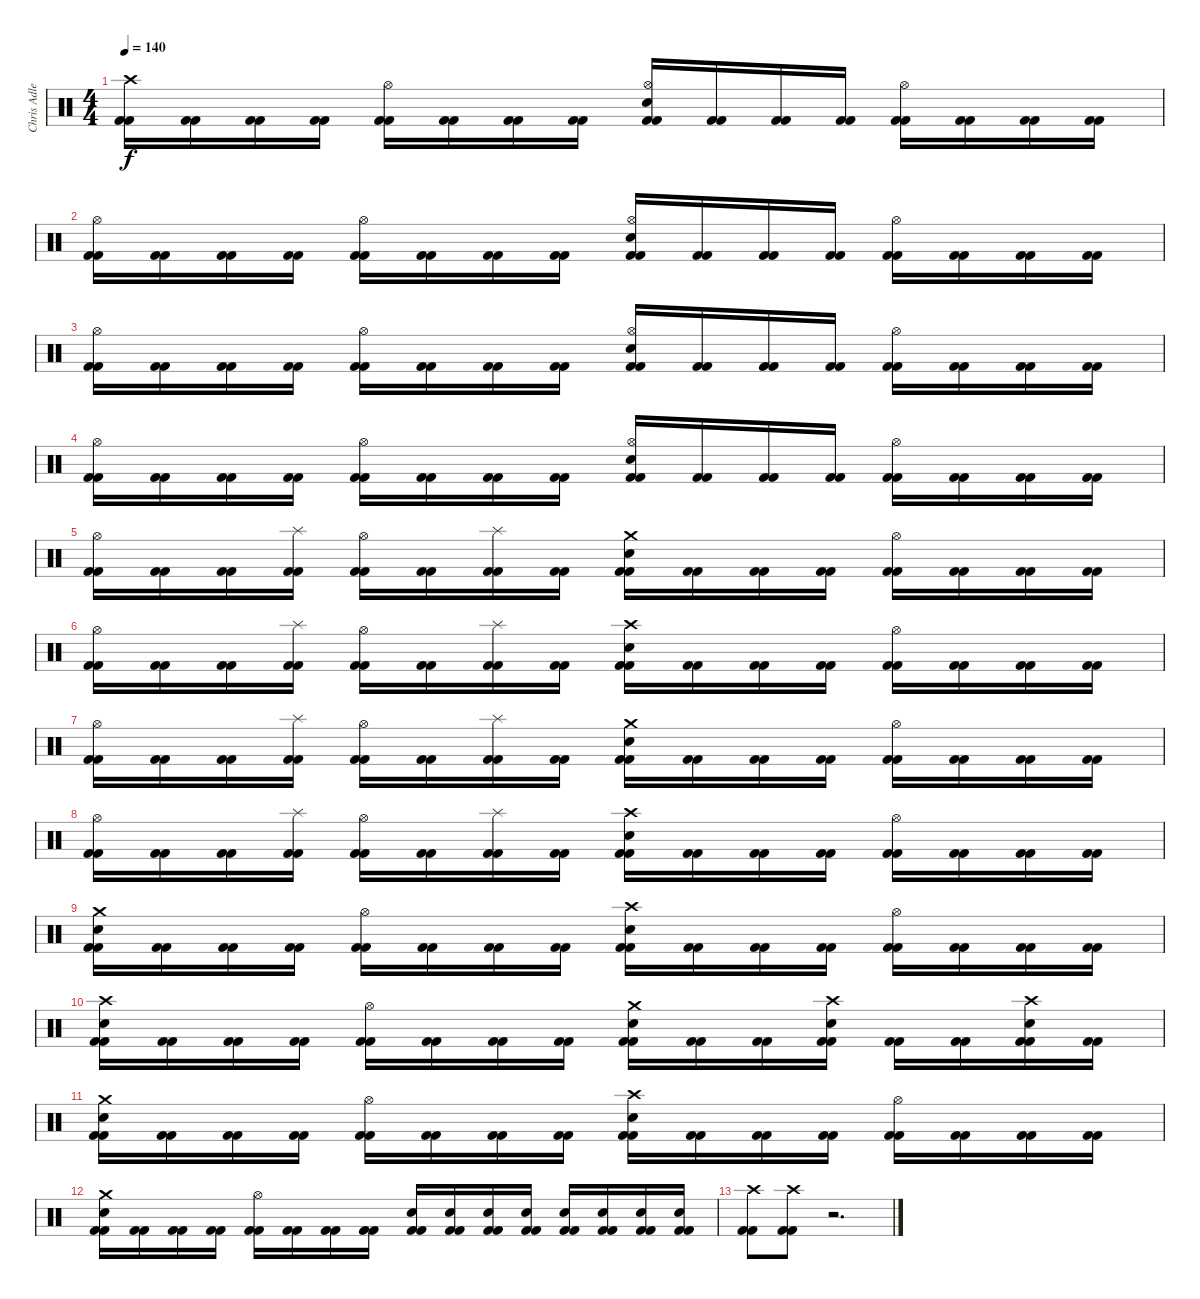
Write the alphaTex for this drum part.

\track ("Chris Adler" "Chris Adle") {instrument percussion}
\staff {score}
\articulation defaults
\ts (4 4)
\tempo 140
\clef neutral
\ks c
("Crash high (hit)" "Kick (hit) 2" "Kick (hit) 2").16{dy f} ("Kick (hit) 2" "Kick (hit) 2").16 ("Kick (hit) 2" "Kick (hit) 2").16 ("Kick (hit) 2" "Kick (hit) 2").16 ("Hi-Hat (open)" "Kick (hit) 2" "Kick (hit) 2").16 ("Kick (hit) 2" "Kick (hit) 2").16 ("Kick (hit) 2" "Kick (hit) 2").16 ("Kick (hit) 2" "Kick (hit) 2").16 ("Hi-Hat (open)" "Electric Snare (hit)" "Kick (hit) 2" "Kick (hit) 2").16 ("Kick (hit) 2" "Kick (hit) 2").16 ("Kick (hit) 2" "Kick (hit) 2").16 ("Kick (hit) 2" "Kick (hit) 2").16 ("Hi-Hat (open)" "Kick (hit) 2" "Kick (hit) 2").16 ("Kick (hit) 2" "Kick (hit) 2").16 ("Kick (hit) 2" "Kick (hit) 2").16 ("Kick (hit) 2" "Kick (hit) 2").16 |
("Hi-Hat (open)" "Kick (hit) 2" "Kick (hit) 2").16 ("Kick (hit) 2" "Kick (hit) 2").16 ("Kick (hit) 2" "Kick (hit) 2").16 ("Kick (hit) 2" "Kick (hit) 2").16 ("Hi-Hat (open)" "Kick (hit) 2" "Kick (hit) 2").16 ("Kick (hit) 2" "Kick (hit) 2").16 ("Kick (hit) 2" "Kick (hit) 2").16 ("Kick (hit) 2" "Kick (hit) 2").16 ("Hi-Hat (open)" "Electric Snare (hit)" "Kick (hit) 2" "Kick (hit) 2").16 ("Kick (hit) 2" "Kick (hit) 2").16 ("Kick (hit) 2" "Kick (hit) 2").16 ("Kick (hit) 2" "Kick (hit) 2").16 ("Hi-Hat (open)" "Kick (hit) 2" "Kick (hit) 2").16 ("Kick (hit) 2" "Kick (hit) 2").16 ("Kick (hit) 2" "Kick (hit) 2").16 ("Kick (hit) 2" "Kick (hit) 2").16 |
("Hi-Hat (open)" "Kick (hit) 2" "Kick (hit) 2").16 ("Kick (hit) 2" "Kick (hit) 2").16 ("Kick (hit) 2" "Kick (hit) 2").16 ("Kick (hit) 2" "Kick (hit) 2").16 ("Hi-Hat (open)" "Kick (hit) 2" "Kick (hit) 2").16 ("Kick (hit) 2" "Kick (hit) 2").16 ("Kick (hit) 2" "Kick (hit) 2").16 ("Kick (hit) 2" "Kick (hit) 2").16 ("Hi-Hat (open)" "Electric Snare (hit)" "Kick (hit) 2" "Kick (hit) 2").16 ("Kick (hit) 2" "Kick (hit) 2").16 ("Kick (hit) 2" "Kick (hit) 2").16 ("Kick (hit) 2" "Kick (hit) 2").16 ("Hi-Hat (open)" "Kick (hit) 2" "Kick (hit) 2").16 ("Kick (hit) 2" "Kick (hit) 2").16 ("Kick (hit) 2" "Kick (hit) 2").16 ("Kick (hit) 2" "Kick (hit) 2").16 |
("Hi-Hat (open)" "Kick (hit) 2" "Kick (hit) 2").16 ("Kick (hit) 2" "Kick (hit) 2").16 ("Kick (hit) 2" "Kick (hit) 2").16 ("Kick (hit) 2" "Kick (hit) 2").16 ("Hi-Hat (open)" "Kick (hit) 2" "Kick (hit) 2").16 ("Kick (hit) 2" "Kick (hit) 2").16 ("Kick (hit) 2" "Kick (hit) 2").16 ("Kick (hit) 2" "Kick (hit) 2").16 ("Hi-Hat (open)" "Electric Snare (hit)" "Kick (hit) 2" "Kick (hit) 2").16 ("Kick (hit) 2" "Kick (hit) 2").16 ("Kick (hit) 2" "Kick (hit) 2").16 ("Kick (hit) 2" "Kick (hit) 2").16 ("Hi-Hat (open)" "Kick (hit) 2" "Kick (hit) 2").16 ("Kick (hit) 2" "Kick (hit) 2").16 ("Kick (hit) 2" "Kick (hit) 2").16 ("Kick (hit) 2" "Kick (hit) 2").16 |
("Hi-Hat (open)" "Kick (hit) 2" "Kick (hit) 2").16 ("Kick (hit) 2" "Kick (hit) 2").16 ("Kick (hit) 2" "Kick (hit) 2").16 ("Splash (hit)" "Kick (hit) 2" "Kick (hit) 2").16 ("Hi-Hat (open)" "Kick (hit) 2" "Kick (hit) 2").16 ("Kick (hit) 2" "Kick (hit) 2").16 ("Splash (hit)" "Kick (hit) 2" "Kick (hit) 2").16 ("Kick (hit) 2" "Kick (hit) 2").16 ("Crash medium (hit)" "Electric Snare (hit)" "Kick (hit) 2" "Kick (hit) 2").16 ("Kick (hit) 2" "Kick (hit) 2").16 ("Kick (hit) 2" "Kick (hit) 2").16 ("Kick (hit) 2" "Kick (hit) 2").16 ("Hi-Hat (open)" "Kick (hit) 2" "Kick (hit) 2").16 ("Kick (hit) 2" "Kick (hit) 2").16 ("Kick (hit) 2" "Kick (hit) 2").16 ("Kick (hit) 2" "Kick (hit) 2").16 |
("Hi-Hat (open)" "Kick (hit) 2" "Kick (hit) 2").16 ("Kick (hit) 2" "Kick (hit) 2").16 ("Kick (hit) 2" "Kick (hit) 2").16 ("Splash (hit)" "Kick (hit) 2" "Kick (hit) 2").16 ("Hi-Hat (open)" "Kick (hit) 2" "Kick (hit) 2").16 ("Kick (hit) 2" "Kick (hit) 2").16 ("Splash (hit)" "Kick (hit) 2" "Kick (hit) 2").16 ("Kick (hit) 2" "Kick (hit) 2").16 ("Crash high (hit)" "Electric Snare (hit)" "Kick (hit) 2" "Kick (hit) 2").16 ("Kick (hit) 2" "Kick (hit) 2").16 ("Kick (hit) 2" "Kick (hit) 2").16 ("Kick (hit) 2" "Kick (hit) 2").16 ("Hi-Hat (open)" "Kick (hit) 2" "Kick (hit) 2").16 ("Kick (hit) 2" "Kick (hit) 2").16 ("Kick (hit) 2" "Kick (hit) 2").16 ("Kick (hit) 2" "Kick (hit) 2").16 |
("Hi-Hat (open)" "Kick (hit) 2" "Kick (hit) 2").16 ("Kick (hit) 2" "Kick (hit) 2").16 ("Kick (hit) 2" "Kick (hit) 2").16 ("Splash (hit)" "Kick (hit) 2" "Kick (hit) 2").16 ("Hi-Hat (open)" "Kick (hit) 2" "Kick (hit) 2").16 ("Kick (hit) 2" "Kick (hit) 2").16 ("Splash (hit)" "Kick (hit) 2" "Kick (hit) 2").16 ("Kick (hit) 2" "Kick (hit) 2").16 ("Crash medium (hit)" "Electric Snare (hit)" "Kick (hit) 2" "Kick (hit) 2").16 ("Kick (hit) 2" "Kick (hit) 2").16 ("Kick (hit) 2" "Kick (hit) 2").16 ("Kick (hit) 2" "Kick (hit) 2").16 ("Hi-Hat (open)" "Kick (hit) 2" "Kick (hit) 2").16 ("Kick (hit) 2" "Kick (hit) 2").16 ("Kick (hit) 2" "Kick (hit) 2").16 ("Kick (hit) 2" "Kick (hit) 2").16 |
("Hi-Hat (open)" "Kick (hit) 2" "Kick (hit) 2").16 ("Kick (hit) 2" "Kick (hit) 2").16 ("Kick (hit) 2" "Kick (hit) 2").16 ("Splash (hit)" "Kick (hit) 2" "Kick (hit) 2").16 ("Hi-Hat (open)" "Kick (hit) 2" "Kick (hit) 2").16 ("Kick (hit) 2" "Kick (hit) 2").16 ("Splash (hit)" "Kick (hit) 2" "Kick (hit) 2").16 ("Kick (hit) 2" "Kick (hit) 2").16 ("Crash high (hit)" "Electric Snare (hit)" "Kick (hit) 2" "Kick (hit) 2").16 ("Kick (hit) 2" "Kick (hit) 2").16 ("Kick (hit) 2" "Kick (hit) 2").16 ("Kick (hit) 2" "Kick (hit) 2").16 ("Hi-Hat (open)" "Kick (hit) 2" "Kick (hit) 2").16 ("Kick (hit) 2" "Kick (hit) 2").16 ("Kick (hit) 2" "Kick (hit) 2").16 ("Kick (hit) 2" "Kick (hit) 2").16 |
("Crash medium (hit)" "Electric Snare (hit)" "Kick (hit) 2" "Kick (hit) 2").16 ("Kick (hit) 2" "Kick (hit) 2").16 ("Kick (hit) 2" "Kick (hit) 2").16 ("Kick (hit) 2" "Kick (hit) 2").16 ("Hi-Hat (open)" "Kick (hit) 2" "Kick (hit) 2").16 ("Kick (hit) 2" "Kick (hit) 2").16 ("Kick (hit) 2" "Kick (hit) 2").16 ("Kick (hit) 2" "Kick (hit) 2").16 ("Crash high (hit)" "Electric Snare (hit)" "Kick (hit) 2" "Kick (hit) 2").16 ("Kick (hit) 2" "Kick (hit) 2").16 ("Kick (hit) 2" "Kick (hit) 2").16 ("Kick (hit) 2" "Kick (hit) 2").16 ("Hi-Hat (open)" "Kick (hit) 2" "Kick (hit) 2").16 ("Kick (hit) 2" "Kick (hit) 2").16 ("Kick (hit) 2" "Kick (hit) 2").16 ("Kick (hit) 2" "Kick (hit) 2").16 |
("Crash high (hit)" "Electric Snare (hit)" "Kick (hit) 2" "Kick (hit) 2").16 ("Kick (hit) 2" "Kick (hit) 2").16 ("Kick (hit) 2" "Kick (hit) 2").16 ("Kick (hit) 2" "Kick (hit) 2").16 ("Hi-Hat (open)" "Kick (hit) 2" "Kick (hit) 2").16 ("Kick (hit) 2" "Kick (hit) 2").16 ("Kick (hit) 2" "Kick (hit) 2").16 ("Kick (hit) 2" "Kick (hit) 2").16 ("Crash medium (hit)" "Electric Snare (hit)" "Kick (hit) 2" "Kick (hit) 2").16 ("Kick (hit) 2" "Kick (hit) 2").16 ("Kick (hit) 2" "Kick (hit) 2").16 ("Crash high (hit)" "Electric Snare (hit)" "Kick (hit) 2" "Kick (hit) 2").16 ("Kick (hit) 2" "Kick (hit) 2").16 ("Kick (hit) 2" "Kick (hit) 2").16 ("Crash high (hit)" "Electric Snare (hit)" "Kick (hit) 2" "Kick (hit) 2").16 ("Kick (hit) 2" "Kick (hit) 2").16 |
("Crash medium (hit)" "Electric Snare (hit)" "Kick (hit) 2" "Kick (hit) 2").16 ("Kick (hit) 2" "Kick (hit) 2").16 ("Kick (hit) 2" "Kick (hit) 2").16 ("Kick (hit) 2" "Kick (hit) 2").16 ("Hi-Hat (open)" "Kick (hit) 2" "Kick (hit) 2").16 ("Kick (hit) 2" "Kick (hit) 2").16 ("Kick (hit) 2" "Kick (hit) 2").16 ("Kick (hit) 2" "Kick (hit) 2").16 ("Crash high (hit)" "Electric Snare (hit)" "Kick (hit) 2" "Kick (hit) 2").16 ("Kick (hit) 2" "Kick (hit) 2").16 ("Kick (hit) 2" "Kick (hit) 2").16 ("Kick (hit) 2" "Kick (hit) 2").16 ("Hi-Hat (open)" "Kick (hit) 2" "Kick (hit) 2").16 ("Kick (hit) 2" "Kick (hit) 2").16 ("Kick (hit) 2" "Kick (hit) 2").16 ("Kick (hit) 2" "Kick (hit) 2").16 |
("Crash medium (hit)" "Electric Snare (hit)" "Kick (hit) 2" "Kick (hit) 2").16 ("Kick (hit) 2" "Kick (hit) 2").16 ("Kick (hit) 2" "Kick (hit) 2").16 ("Kick (hit) 2" "Kick (hit) 2").16 ("Hi-Hat (open)" "Kick (hit) 2" "Kick (hit) 2").16 ("Kick (hit) 2" "Kick (hit) 2").16 ("Kick (hit) 2" "Kick (hit) 2").16 ("Kick (hit) 2" "Kick (hit) 2").16 ("Electric Snare (hit)" "Kick (hit) 2" "Kick (hit) 2").16 ("Electric Snare (hit)" "Kick (hit) 2" "Kick (hit) 2").16 ("Electric Snare (hit)" "Kick (hit) 2" "Kick (hit) 2").16 ("Electric Snare (hit)" "Kick (hit) 2" "Kick (hit) 2").16 ("Electric Snare (hit)" "Kick (hit) 2" "Kick (hit) 2").16 ("Electric Snare (hit)" "Kick (hit) 2" "Kick (hit) 2").16 ("Electric Snare (hit)" "Kick (hit) 2" "Kick (hit) 2").16 ("Electric Snare (hit)" "Kick (hit) 2" "Kick (hit) 2").16 |
("Crash high (hit)" "Kick (hit) 2" "Kick (hit) 2").8 ("Crash high (hit)" "Kick (hit) 2" "Kick (hit) 2").8 r.2{d volume 0}
